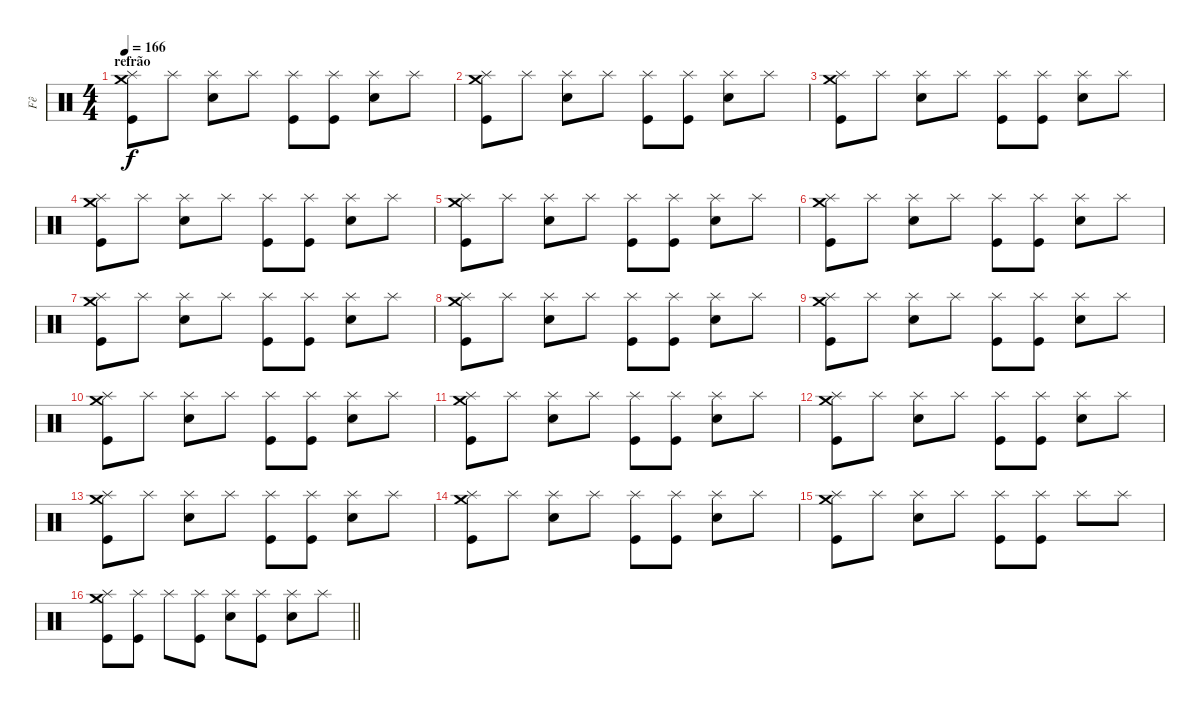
\track ("Fê" "Fê") {instrument percussion}
\staff {score}
\articulation defaults
\ts (4 4)
\section ("" "refrão")
\tempo 166
\clef neutral
\ks c
("Crash medium (hit)" "Splash (hit)" "Kick (hit)").8{dy f} "Splash (hit)".8 ("Splash (hit)" "Electric Snare (hit)").8 "Splash (hit)".8 ("Splash (hit)" "Kick (hit)").8 ("Splash (hit)" "Kick (hit)").8 ("Splash (hit)" "Electric Snare (hit)").8 "Splash (hit)".8 |
("Crash medium (hit)" "Splash (hit)" "Kick (hit)").8 "Splash (hit)".8 ("Splash (hit)" "Electric Snare (hit)").8 "Splash (hit)".8 ("Splash (hit)" "Kick (hit)").8 ("Splash (hit)" "Kick (hit)").8 ("Splash (hit)" "Electric Snare (hit)").8 "Splash (hit)".8 |
("Crash medium (hit)" "Splash (hit)" "Kick (hit)").8 "Splash (hit)".8 ("Splash (hit)" "Electric Snare (hit)").8 "Splash (hit)".8 ("Splash (hit)" "Kick (hit)").8 ("Splash (hit)" "Kick (hit)").8 ("Splash (hit)" "Electric Snare (hit)").8 "Splash (hit)".8 |
("Crash medium (hit)" "Splash (hit)" "Kick (hit)").8 "Splash (hit)".8 ("Splash (hit)" "Electric Snare (hit)").8 "Splash (hit)".8 ("Splash (hit)" "Kick (hit)").8 ("Splash (hit)" "Kick (hit)").8 ("Splash (hit)" "Electric Snare (hit)").8 "Splash (hit)".8 |
("Crash medium (hit)" "Splash (hit)" "Kick (hit)").8 "Splash (hit)".8 ("Splash (hit)" "Electric Snare (hit)").8 "Splash (hit)".8 ("Splash (hit)" "Kick (hit)").8 ("Splash (hit)" "Kick (hit)").8 ("Splash (hit)" "Electric Snare (hit)").8 "Splash (hit)".8 |
("Crash medium (hit)" "Splash (hit)" "Kick (hit)").8 "Splash (hit)".8 ("Splash (hit)" "Electric Snare (hit)").8 "Splash (hit)".8 ("Splash (hit)" "Kick (hit)").8 ("Splash (hit)" "Kick (hit)").8 ("Splash (hit)" "Electric Snare (hit)").8 "Splash (hit)".8 |
("Crash medium (hit)" "Splash (hit)" "Kick (hit)").8 "Splash (hit)".8 ("Splash (hit)" "Electric Snare (hit)").8 "Splash (hit)".8 ("Splash (hit)" "Kick (hit)").8 ("Splash (hit)" "Kick (hit)").8 ("Splash (hit)" "Electric Snare (hit)").8 "Splash (hit)".8 |
("Crash medium (hit)" "Splash (hit)" "Kick (hit)").8 "Splash (hit)".8 ("Splash (hit)" "Electric Snare (hit)").8 "Splash (hit)".8 ("Splash (hit)" "Kick (hit)").8 ("Splash (hit)" "Kick (hit)").8 ("Splash (hit)" "Electric Snare (hit)").8 "Splash (hit)".8 |
("Crash medium (hit)" "Splash (hit)" "Kick (hit)").8 "Splash (hit)".8 ("Splash (hit)" "Electric Snare (hit)").8 "Splash (hit)".8 ("Splash (hit)" "Kick (hit)").8 ("Splash (hit)" "Kick (hit)").8 ("Splash (hit)" "Electric Snare (hit)").8 "Splash (hit)".8 |
("Crash medium (hit)" "Splash (hit)" "Kick (hit)").8 "Splash (hit)".8 ("Splash (hit)" "Electric Snare (hit)").8 "Splash (hit)".8 ("Splash (hit)" "Kick (hit)").8 ("Splash (hit)" "Kick (hit)").8 ("Splash (hit)" "Electric Snare (hit)").8 "Splash (hit)".8 |
("Crash medium (hit)" "Splash (hit)" "Kick (hit)").8 "Splash (hit)".8 ("Splash (hit)" "Electric Snare (hit)").8 "Splash (hit)".8 ("Splash (hit)" "Kick (hit)").8 ("Splash (hit)" "Kick (hit)").8 ("Splash (hit)" "Electric Snare (hit)").8 "Splash (hit)".8 |
("Crash medium (hit)" "Splash (hit)" "Kick (hit)").8 "Splash (hit)".8 ("Splash (hit)" "Electric Snare (hit)").8 "Splash (hit)".8 ("Splash (hit)" "Kick (hit)").8 ("Splash (hit)" "Kick (hit)").8 ("Splash (hit)" "Electric Snare (hit)").8 "Splash (hit)".8 |
("Crash medium (hit)" "Splash (hit)" "Kick (hit)").8 "Splash (hit)".8 ("Splash (hit)" "Electric Snare (hit)").8 "Splash (hit)".8 ("Splash (hit)" "Kick (hit)").8 ("Splash (hit)" "Kick (hit)").8 ("Splash (hit)" "Electric Snare (hit)").8 "Splash (hit)".8 |
("Crash medium (hit)" "Splash (hit)" "Kick (hit)").8 "Splash (hit)".8 ("Splash (hit)" "Electric Snare (hit)").8 "Splash (hit)".8 ("Splash (hit)" "Kick (hit)").8 ("Splash (hit)" "Kick (hit)").8 ("Splash (hit)" "Electric Snare (hit)").8 "Splash (hit)".8 |
("Crash medium (hit)" "Splash (hit)" "Kick (hit)").8 "Splash (hit)".8 ("Splash (hit)" "Electric Snare (hit)").8 "Splash (hit)".8 ("Splash (hit)" "Kick (hit)").8 ("Splash (hit)" "Kick (hit)").8 "Splash (hit)".8 "Splash (hit)".8 |
\barLineRight lightlight
("Crash medium (hit)" "Splash (hit)" "Kick (hit)").8 ("Splash (hit)" "Kick (hit)").8 "Splash (hit)".8 ("Splash (hit)" "Kick (hit)").8 ("Splash (hit)" "Electric Snare (hit)").8 ("Splash (hit)" "Kick (hit)").8 ("Splash (hit)" "Electric Snare (hit)").8 "Splash (hit)".8
